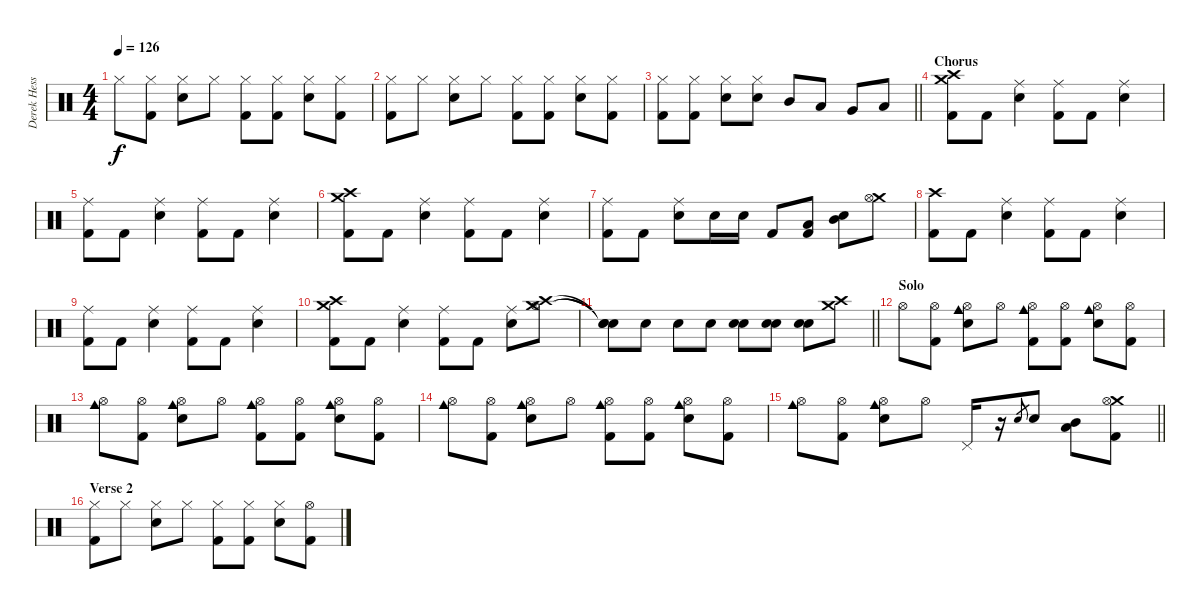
\track ("Derek Hess (Drums and Percussion)" "Derek Hess") {instrument percussion}
\staff {score}
\articulation defaults
\ts (4 4)
\tempo 126
\clef neutral
\ks c "Hi-Hat (closed)".8{dy f}
("Hi-Hat (closed)" "Kick (hit) 2").8 ("Electric Snare (hit)" "Hi-Hat (closed)").8 "Hi-Hat (closed)".8 ("Hi-Hat (closed)" "Kick (hit) 2").8 ("Hi-Hat (closed)" "Kick (hit) 2").8 ("Electric Snare (hit)" "Hi-Hat (closed)").8 ("Hi-Hat (closed)" "Kick (hit) 2").8 |
("Hi-Hat (closed)" "Kick (hit) 2").8 "Hi-Hat (closed)".8 ("Electric Snare (hit)" "Hi-Hat (closed)").8 "Hi-Hat (closed)".8 ("Hi-Hat (closed)" "Kick (hit) 2").8 ("Hi-Hat (closed)" "Kick (hit) 2").8 ("Electric Snare (hit)" "Hi-Hat (closed)").8 ("Hi-Hat (closed)" "Kick (hit) 2").8 |
\barLineRight lightlight
("Hi-Hat (closed)" "Kick (hit) 2").8 ("Hi-Hat (closed)" "Kick (hit) 2").8 ("Electric Snare (hit)" "Hi-Hat (closed)").8 ("Electric Snare (hit)" "Hi-Hat (closed)").8 "Mid Tom (hit)".8 "Low Tom (hit)".8 "Very Low Tom (hit)".8 "Low Floor Tom (hit)".8 |
\section ("" "Chorus")
("Crash high (hit)" "Crash medium (hit)" "Kick (hit) 2").8 "Kick (hit) 2".8 ("Ride (middle)" "Snare (hit) 2").4 ("Ride (middle)" "Kick (hit) 2").8 "Kick (hit) 2".8 ("Ride (middle)" "Snare (hit) 2").4 |
("Ride (middle)" "Kick (hit) 2").8 "Kick (hit) 2".8 ("Ride (middle)" "Snare (hit) 2").4 ("Ride (middle)" "Kick (hit) 2").8 "Kick (hit) 2".8 ("Ride (middle)" "Snare (hit) 2").4 |
("Crash high (hit)" "Crash medium (hit)" "Kick (hit) 2").8 "Kick (hit) 2".8 ("Ride (middle)" "Snare (hit) 2").4 ("Ride (middle)" "Kick (hit) 2").8 "Kick (hit) 2".8 ("Ride (middle)" "Snare (hit) 2").4 |
("Ride (middle)" "Kick (hit) 2").8 "Kick (hit) 2".8 ("Ride (middle)" "Snare (hit) 2").8 "Electric Snare (hit)".16 "Electric Snare (hit)".16 "Kick (hit) 2".8 ("Low Tom (hit)" "Kick (hit) 2").8 ("Electric Snare (hit)" "Mid Tom (hit)").8 ("Crash medium (hit)" "Hi-Hat (open)").8 |
("Crash high (hit)" "Kick (hit) 2").8 "Kick (hit) 2".8 ("Ride (middle)" "Snare (hit) 2").4 ("Ride (middle)" "Kick (hit) 2").8 "Kick (hit) 2".8 ("Ride (middle)" "Snare (hit) 2").4 |
("Ride (middle)" "Kick (hit) 2").8 "Kick (hit) 2".8 ("Ride (middle)" "Snare (hit) 2").4 ("Ride (middle)" "Kick (hit) 2").8 "Kick (hit) 2".8 ("Ride (middle)" "Snare (hit) 2").4 |
("Crash high (hit)" "Crash medium (hit)" "Kick (hit) 2").8 "Kick (hit) 2".8 ("Ride (middle)" "Snare (hit) 2").4 ("Ride (middle)" "Kick (hit) 2").8 "Kick (hit) 2".8 ("Ride (middle)" "Snare (hit) 2").8 ("Crash medium (hit)" "Crash high (hit)" "Hi-Hat (open)").8 |
\barLineRight lightlight
("Snare (hit)"{t} "Snare (hit)"{t} "Snare (hit)"{t}).8 "Electric Snare (hit)".8 "Electric Snare (hit)".8 "Electric Snare (hit)".8 ("Snare (hit) 2" "Electric Snare (hit)").8 ("Snare (hit) 2" "Electric Snare (hit)").8 ("Snare (hit) 2" "Electric Snare (hit)").8 ("Crash medium (hit)" "Crash high (hit)").8 |
\section ("" "Solo")
"Hi-Hat (open)".8 ("Hi-Hat (open)" "Kick (hit) 2").8 ("Electric Snare (hit)" "Hi-Hat (open)" "Cowbell medium (hit)").8 "Hi-Hat (open)".8 ("Hi-Hat (open)" "Cowbell medium (hit)" "Kick (hit) 2").8 ("Hi-Hat (open)" "Kick (hit) 2").8 ("Electric Snare (hit)" "Hi-Hat (open)" "Cowbell medium (hit)").8 ("Hi-Hat (open)" "Kick (hit) 2").8 |
("Hi-Hat (open)" "Cowbell medium (hit)").8 ("Hi-Hat (open)" "Kick (hit) 2").8 ("Electric Snare (hit)" "Hi-Hat (open)" "Cowbell medium (hit)").8 "Hi-Hat (open)".8 ("Hi-Hat (open)" "Cowbell medium (hit)" "Kick (hit) 2").8 ("Hi-Hat (open)" "Kick (hit) 2").8 ("Electric Snare (hit)" "Hi-Hat (open)" "Cowbell medium (hit)").8 ("Hi-Hat (open)" "Kick (hit) 2").8 |
("Hi-Hat (open)" "Cowbell medium (hit)").8 ("Hi-Hat (open)" "Kick (hit) 2").8 ("Electric Snare (hit)" "Hi-Hat (open)" "Cowbell medium (hit)").8 "Hi-Hat (open)".8 ("Hi-Hat (open)" "Cowbell medium (hit)" "Kick (hit) 2").8 ("Hi-Hat (open)" "Kick (hit) 2").8 ("Electric Snare (hit)" "Hi-Hat (open)" "Cowbell medium (hit)").8 ("Hi-Hat (open)" "Kick (hit) 2").8 |
\barLineRight lightlight
("Hi-Hat (open)" "Cowbell medium (hit)").8 ("Hi-Hat (open)" "Kick (hit) 2").8 ("Electric Snare (hit)" "Hi-Hat (open)" "Cowbell medium (hit)").8 "Hi-Hat (open)".8 "Pedal Hi-Hat (hit)".16 r.16 "Electric Snare (hit)".8{gr} "Electric Snare (hit)".8 ("Low Tom (hit)" "Mid Tom (hit)").8 ("Crash medium (hit)" "Hi-Hat (open)" "Kick (hit) 2").8 |
\section ("" "Verse 2")
("Hi-Hat (closed)" "Kick (hit) 2").8 "Hi-Hat (closed)".8 ("Electric Snare (hit)" "Hi-Hat (closed)").8 "Hi-Hat (closed)".8 ("Hi-Hat (closed)" "Kick (hit) 2").8 ("Hi-Hat (closed)" "Kick (hit) 2").8 ("Electric Snare (hit)" "Hi-Hat (closed)").8 ("Hi-Hat (open)" "Kick (hit) 2").8
